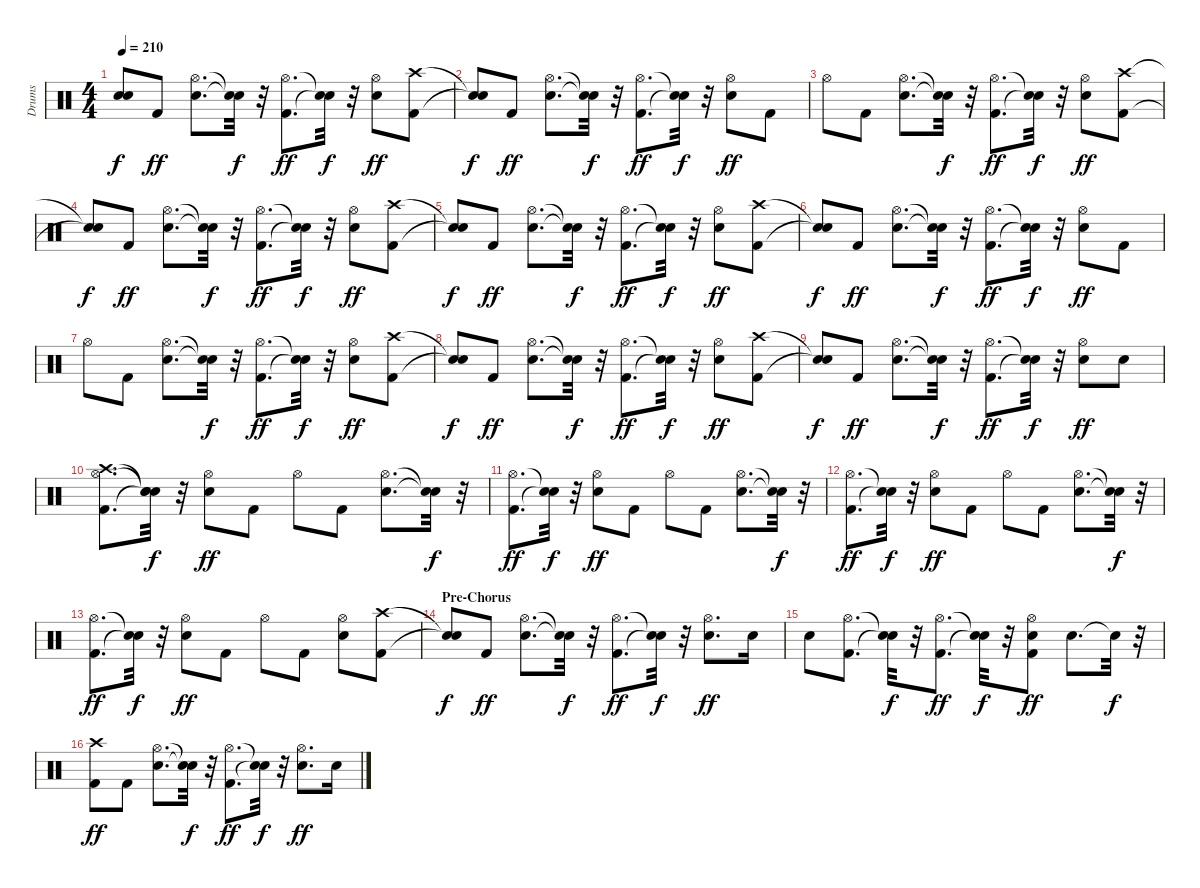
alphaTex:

\track ("Drums" "Drums") {instrument percussion}
\staff {score}
\articulation defaults
\ts (4 4)
\tempo 210
\clef neutral
\ks c
("Snare (hit)"{t} "Snare (hit)"{t}).8{dy f} "Kick (hit) 2".8{dy ff} ("Snare (hit) 2" "Hi-Hat (open)").8{d} ("Snare (hit)"{t} "Snare (hit)"{t}).32{dy f} r.32 ("Kick (hit) 2" "Hi-Hat (open)").8{d dy ff} ("Snare (hit)"{t} "Snare (hit)"{t}).32{dy f} r.32 ("Snare (hit) 2" "Hi-Hat (open)").8{dy ff} ("Kick (hit) 2" "Crash high (hit)").8 |
("Snare (hit)"{t} "Snare (hit)"{t}).8{dy f} "Kick (hit) 2".8{dy ff} ("Snare (hit) 2" "Hi-Hat (open)").8{d} ("Snare (hit)"{t} "Snare (hit)"{t}).32{dy f} r.32 ("Kick (hit) 2" "Hi-Hat (open)").8{d dy ff} ("Snare (hit)"{t} "Snare (hit)"{t}).32{dy f} r.32 ("Snare (hit) 2" "Hi-Hat (open)").8{dy ff} "Kick (hit) 2".8 |
"Hi-Hat (open)".8 "Kick (hit) 2".8 ("Snare (hit) 2" "Hi-Hat (open)").8{d} ("Snare (hit)"{t} "Snare (hit)"{t}).32{dy f} r.32 ("Kick (hit) 2" "Hi-Hat (open)").8{d dy ff} ("Snare (hit)"{t} "Snare (hit)"{t}).32{dy f} r.32 ("Snare (hit) 2" "Hi-Hat (open)").8{dy ff} ("Kick (hit) 2" "Crash high (hit)").8 |
("Snare (hit)"{t} "Snare (hit)"{t}).8{dy f} "Kick (hit) 2".8{dy ff} ("Snare (hit) 2" "Hi-Hat (open)").8{d} ("Snare (hit)"{t} "Snare (hit)"{t}).32{dy f} r.32 ("Kick (hit) 2" "Hi-Hat (open)").8{d dy ff} ("Snare (hit)"{t} "Snare (hit)"{t}).32{dy f} r.32 ("Snare (hit) 2" "Hi-Hat (open)").8{dy ff} ("Kick (hit) 2" "Crash high (hit)").8 |
("Snare (hit)"{t} "Snare (hit)"{t}).8{dy f} "Kick (hit) 2".8{dy ff} ("Snare (hit) 2" "Hi-Hat (open)").8{d} ("Snare (hit)"{t} "Snare (hit)"{t}).32{dy f} r.32 ("Kick (hit) 2" "Hi-Hat (open)").8{d dy ff} ("Snare (hit)"{t} "Snare (hit)"{t}).32{dy f} r.32 ("Snare (hit) 2" "Hi-Hat (open)").8{dy ff} ("Kick (hit) 2" "Crash high (hit)").8 |
("Snare (hit)"{t} "Snare (hit)"{t}).8{dy f} "Kick (hit) 2".8{dy ff} ("Snare (hit) 2" "Hi-Hat (open)").8{d} ("Snare (hit)"{t} "Snare (hit)"{t}).32{dy f} r.32 ("Kick (hit) 2" "Hi-Hat (open)").8{d dy ff} ("Snare (hit)"{t} "Snare (hit)"{t}).32{dy f} r.32 ("Snare (hit) 2" "Hi-Hat (open)").8{dy ff} "Kick (hit) 2".8 |
"Hi-Hat (open)".8 "Kick (hit) 2".8 ("Snare (hit) 2" "Hi-Hat (open)").8{d} ("Snare (hit)"{t} "Snare (hit)"{t}).32{dy f} r.32 ("Kick (hit) 2" "Hi-Hat (open)").8{d dy ff} ("Snare (hit)"{t} "Snare (hit)"{t}).32{dy f} r.32 ("Snare (hit) 2" "Hi-Hat (open)").8{dy ff} ("Kick (hit) 2" "Crash high (hit)").8 |
("Snare (hit)"{t} "Snare (hit)"{t}).8{dy f} "Kick (hit) 2".8{dy ff} ("Snare (hit) 2" "Hi-Hat (open)").8{d} ("Snare (hit)"{t} "Snare (hit)"{t}).32{dy f} r.32 ("Kick (hit) 2" "Hi-Hat (open)").8{d dy ff} ("Snare (hit)"{t} "Snare (hit)"{t}).32{dy f} r.32 ("Snare (hit) 2" "Hi-Hat (open)").8{dy ff} ("Kick (hit) 2" "Crash high (hit)").8 |
("Snare (hit)"{t} "Snare (hit)"{t}).8{dy f} "Kick (hit) 2".8{dy ff} ("Snare (hit) 2" "Hi-Hat (open)").8{d} ("Snare (hit)"{t} "Snare (hit)"{t}).32{dy f} r.32 ("Kick (hit) 2" "Hi-Hat (open)").8{d dy ff} ("Snare (hit)"{t} "Snare (hit)"{t}).32{dy f} r.32 ("Snare (hit) 2" "Hi-Hat (open)").8{dy ff} "Snare (hit) 2".8 |
("Kick (hit) 2" "Hi-Hat (open)" "Crash high (hit)").8{d} ("Snare (hit)"{t} "Snare (hit)"{t} "Snare (hit)"{t}).32{dy f} r.32 ("Snare (hit) 2" "Hi-Hat (open)").8{dy ff} "Kick (hit) 2".8 "Hi-Hat (open)".8 "Kick (hit) 2".8 ("Snare (hit) 2" "Hi-Hat (open)").8{d} ("Snare (hit)"{t} "Snare (hit)"{t}).32{dy f} r.32 |
("Kick (hit) 2" "Hi-Hat (open)").8{d dy ff} ("Snare (hit)"{t} "Snare (hit)"{t}).32{dy f} r.32 ("Snare (hit) 2" "Hi-Hat (open)").8{dy ff} "Kick (hit) 2".8 "Hi-Hat (open)".8 "Kick (hit) 2".8 ("Snare (hit) 2" "Hi-Hat (open)").8{d} ("Snare (hit)"{t} "Snare (hit)"{t}).32{dy f} r.32 |
("Kick (hit) 2" "Hi-Hat (open)").8{d dy ff} ("Snare (hit)"{t} "Snare (hit)"{t}).32{dy f} r.32 ("Snare (hit) 2" "Hi-Hat (open)").8{dy ff} "Kick (hit) 2".8 "Hi-Hat (open)".8 "Kick (hit) 2".8 ("Snare (hit) 2" "Hi-Hat (open)").8{d} ("Snare (hit)"{t} "Snare (hit)"{t}).32{dy f} r.32 |
("Kick (hit) 2" "Hi-Hat (open)").8{d dy ff} ("Snare (hit)"{t} "Snare (hit)"{t}).32{dy f} r.32 ("Snare (hit) 2" "Hi-Hat (open)").8{dy ff} "Kick (hit) 2".8 "Hi-Hat (open)".8 "Kick (hit) 2".8 ("Snare (hit) 2" "Hi-Hat (open)").8 ("Kick (hit) 2" "Crash high (hit)").8 |
\section ("" "Pre-Chorus")
("Snare (hit)"{t} "Snare (hit)"{t}).8{dy f} "Kick (hit) 2".8{dy ff} ("Snare (hit) 2" "Hi-Hat (open)").8{d} ("Snare (hit)"{t} "Snare (hit)"{t}).32{dy f} r.32 ("Kick (hit) 2" "Hi-Hat (open)").8{d dy ff} ("Snare (hit)"{t} "Snare (hit)"{t}).32{dy f} r.32 ("Snare (hit) 2" "Hi-Hat (open)").8{d dy ff} "Snare (hit) 2".16 |
"Snare (hit) 2".8 ("Kick (hit) 2" "Hi-Hat (open)").8{d} ("Snare (hit)"{t} "Snare (hit)"{t}).32{dy f} r.32 ("Kick (hit) 2" "Hi-Hat (open)").8{d dy ff} ("Snare (hit)"{t} "Snare (hit)"{t}).32{dy f} r.32 ("Kick (hit) 2" "Snare (hit) 2" "Hi-Hat (open)").8{dy ff} "Snare (hit) 2".8{d} "Snare (hit)"{t}.32{dy f} r.32 |
("Kick (hit) 2" "Crash high (hit)").8{dy ff} "Kick (hit) 2".8 ("Snare (hit) 2" "Hi-Hat (open)").8{d} ("Snare (hit)"{t} "Snare (hit)"{t}).32{dy f} r.32 ("Kick (hit) 2" "Hi-Hat (open)").8{d dy ff} ("Snare (hit)"{t} "Snare (hit)"{t}).32{dy f} r.32 ("Snare (hit) 2" "Hi-Hat (open)").8{d dy ff} "Snare (hit) 2".16
